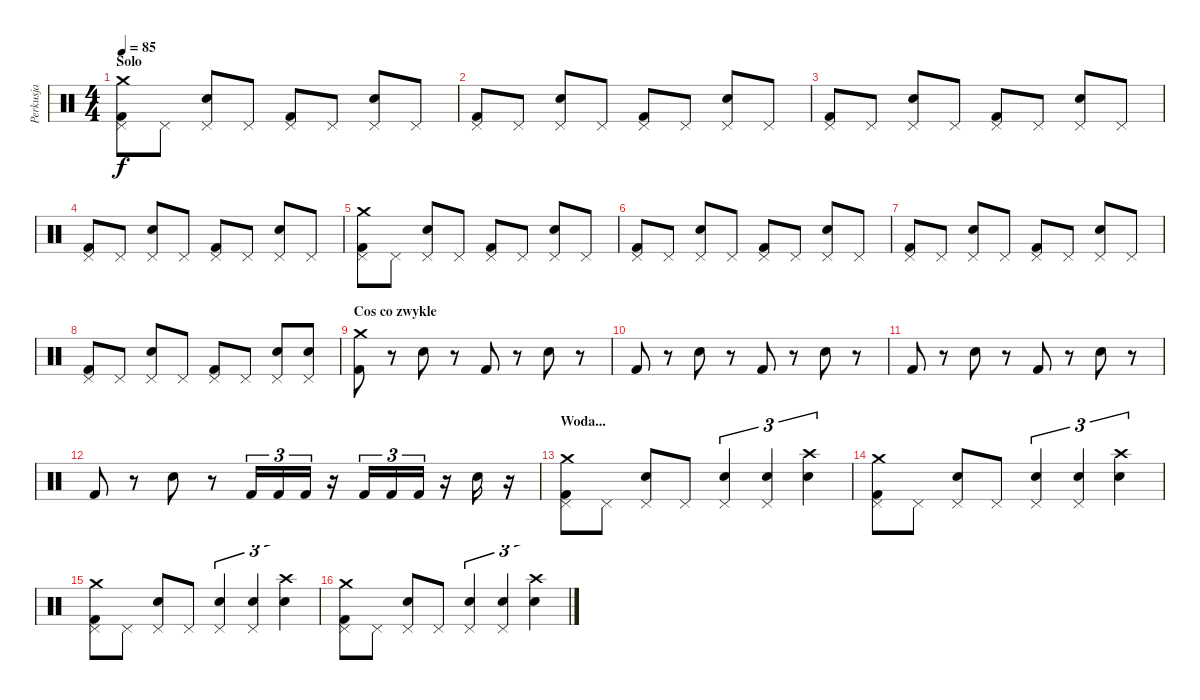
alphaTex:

\track ("Perkusja" "Perkusja") {instrument percussion}
\staff {score}
\articulation defaults
\ts (4 4)
\section ("" "Solo")
\tempo 85
\clef neutral
\ks c
("Crash medium (hit)" "Kick (hit) 2" "Pedal Hi-Hat (hit)").8{dy f} "Pedal Hi-Hat (hit)".8 ("Snare (hit) 2" "Pedal Hi-Hat (hit)").8 "Pedal Hi-Hat (hit)".8 ("Kick (hit) 2" "Pedal Hi-Hat (hit)").8 "Pedal Hi-Hat (hit)".8 ("Snare (hit) 2" "Pedal Hi-Hat (hit)").8 "Pedal Hi-Hat (hit)".8 |
("Kick (hit) 2" "Pedal Hi-Hat (hit)").8 "Pedal Hi-Hat (hit)".8 ("Snare (hit) 2" "Pedal Hi-Hat (hit)").8 "Pedal Hi-Hat (hit)".8 ("Kick (hit) 2" "Pedal Hi-Hat (hit)").8 "Pedal Hi-Hat (hit)".8 ("Snare (hit) 2" "Pedal Hi-Hat (hit)").8 "Pedal Hi-Hat (hit)".8 |
("Kick (hit) 2" "Pedal Hi-Hat (hit)").8 "Pedal Hi-Hat (hit)".8 ("Snare (hit) 2" "Pedal Hi-Hat (hit)").8 "Pedal Hi-Hat (hit)".8 ("Kick (hit) 2" "Pedal Hi-Hat (hit)").8 "Pedal Hi-Hat (hit)".8 ("Snare (hit) 2" "Pedal Hi-Hat (hit)").8 "Pedal Hi-Hat (hit)".8 |
("Kick (hit) 2" "Pedal Hi-Hat (hit)").8 "Pedal Hi-Hat (hit)".8 ("Snare (hit) 2" "Pedal Hi-Hat (hit)").8 "Pedal Hi-Hat (hit)".8 ("Kick (hit) 2" "Pedal Hi-Hat (hit)").8 "Pedal Hi-Hat (hit)".8 ("Snare (hit) 2" "Pedal Hi-Hat (hit)").8 "Pedal Hi-Hat (hit)".8 |
("Crash medium (hit)" "Kick (hit) 2" "Pedal Hi-Hat (hit)").8 "Pedal Hi-Hat (hit)".8 ("Snare (hit) 2" "Pedal Hi-Hat (hit)").8 "Pedal Hi-Hat (hit)".8 ("Kick (hit) 2" "Pedal Hi-Hat (hit)").8 "Pedal Hi-Hat (hit)".8 ("Snare (hit) 2" "Pedal Hi-Hat (hit)").8 "Pedal Hi-Hat (hit)".8 |
("Kick (hit) 2" "Pedal Hi-Hat (hit)").8 "Pedal Hi-Hat (hit)".8 ("Snare (hit) 2" "Pedal Hi-Hat (hit)").8 "Pedal Hi-Hat (hit)".8 ("Kick (hit) 2" "Pedal Hi-Hat (hit)").8 "Pedal Hi-Hat (hit)".8 ("Snare (hit) 2" "Pedal Hi-Hat (hit)").8 "Pedal Hi-Hat (hit)".8 |
("Kick (hit) 2" "Pedal Hi-Hat (hit)").8 "Pedal Hi-Hat (hit)".8 ("Snare (hit) 2" "Pedal Hi-Hat (hit)").8 "Pedal Hi-Hat (hit)".8 ("Kick (hit) 2" "Pedal Hi-Hat (hit)").8 "Pedal Hi-Hat (hit)".8 ("Snare (hit) 2" "Pedal Hi-Hat (hit)").8 "Pedal Hi-Hat (hit)".8 |
("Kick (hit) 2" "Pedal Hi-Hat (hit)").8 "Pedal Hi-Hat (hit)".8 ("Snare (hit) 2" "Pedal Hi-Hat (hit)").8 "Pedal Hi-Hat (hit)".8 ("Kick (hit) 2" "Pedal Hi-Hat (hit)").8 "Pedal Hi-Hat (hit)".8 ("Snare (hit) 2" "Pedal Hi-Hat (hit)").8 ("Snare (hit) 2" "Pedal Hi-Hat (hit)").8 |
\section ("" "Cos co zwykle")
("Crash medium (hit)" "Kick (hit) 2").8 r.8 "Snare (hit) 2".8 r.8 "Kick (hit) 2".8 r.8 "Snare (hit) 2".8 r.8 |
"Kick (hit) 2".8 r.8 "Snare (hit) 2".8 r.8 "Kick (hit) 2".8 r.8 "Snare (hit) 2".8 r.8 |
"Kick (hit) 2".8 r.8 "Snare (hit) 2".8 r.8 "Kick (hit) 2".8 r.8 "Snare (hit) 2".8 r.8 |
"Kick (hit) 2".8 r.8 "Snare (hit) 2".8 r.8 "Kick (hit) 2".16{tu (3 2)} "Kick (hit) 2".16{tu (3 2)} "Kick (hit) 2".16{tu (3 2)} r.16 "Kick (hit) 2".16{tu (3 2)} "Kick (hit) 2".16{tu (3 2)} "Kick (hit) 2".16{tu (3 2)} r.16 "Snare (hit) 2".16 r.16 |
\section ("" "Woda...")
("Crash medium (hit)" "Kick (hit) 2" "Pedal Hi-Hat (hit)").8 "Pedal Hi-Hat (hit)".8 ("Snare (hit) 2" "Pedal Hi-Hat (hit)").8 "Pedal Hi-Hat (hit)".8 ("Snare (hit) 2" "Pedal Hi-Hat (hit)").4{tu (3 2)} ("Snare (hit) 2" "Pedal Hi-Hat (hit)").4{tu (3 2)} ("Snare (hit) 2" "Crash high (hit)").4{tu (3 2)} |
("Crash medium (hit)" "Kick (hit) 2" "Pedal Hi-Hat (hit)").8 "Pedal Hi-Hat (hit)".8 ("Snare (hit) 2" "Pedal Hi-Hat (hit)").8 "Pedal Hi-Hat (hit)".8 ("Snare (hit) 2" "Pedal Hi-Hat (hit)").4{tu (3 2)} ("Snare (hit) 2" "Pedal Hi-Hat (hit)").4{tu (3 2)} ("Snare (hit) 2" "Crash high (hit)").4{tu (3 2)} |
("Crash medium (hit)" "Kick (hit) 2" "Pedal Hi-Hat (hit)").8 "Pedal Hi-Hat (hit)".8 ("Snare (hit) 2" "Pedal Hi-Hat (hit)").8 "Pedal Hi-Hat (hit)".8 ("Snare (hit) 2" "Pedal Hi-Hat (hit)").4{tu (3 2)} ("Snare (hit) 2" "Pedal Hi-Hat (hit)").4{tu (3 2)} ("Snare (hit) 2" "Crash high (hit)").4{tu (3 2)} |
("Crash medium (hit)" "Kick (hit) 2" "Pedal Hi-Hat (hit)").8 "Pedal Hi-Hat (hit)".8 ("Snare (hit) 2" "Pedal Hi-Hat (hit)").8 "Pedal Hi-Hat (hit)".8 ("Snare (hit) 2" "Pedal Hi-Hat (hit)").4{tu (3 2)} ("Snare (hit) 2" "Pedal Hi-Hat (hit)").4{tu (3 2)} ("Snare (hit) 2" "Crash high (hit)").4{tu (3 2)}
